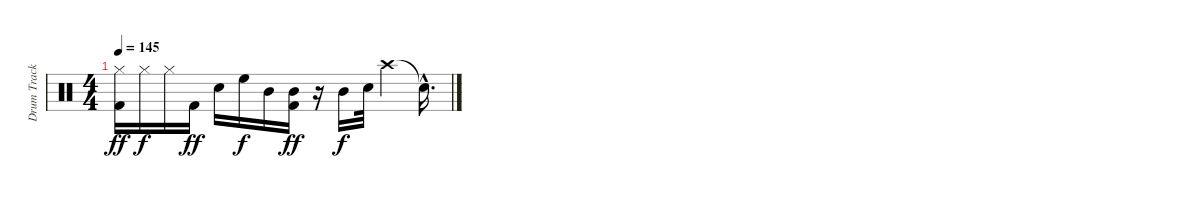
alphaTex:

\track ("Drum Track" "Drum Track") {instrument percussion}
\staff {score}
\articulation defaults
\ts (4 4)
\tempo 145
\clef neutral
\ks c
("Kick (hit) 2" "Hi-Hat (closed)").16{dy ff} "Hi-Hat (closed)".16{dy f} "Hi-Hat (closed)".16 "Kick (hit) 2".16{dy ff} "Electric Snare (hit)".16 "High Floor Tom (hit)".16{dy f} "Mid Tom (hit)".16 ("Kick (hit) 2" "Mid Tom (hit)").16{dy ff} r.16 "Mid Tom (hit)".16{dy f} "Electric Snare (hit)".32 "Crash high (hit)".4 "Snare (hit)"{hac t}.16{d}
